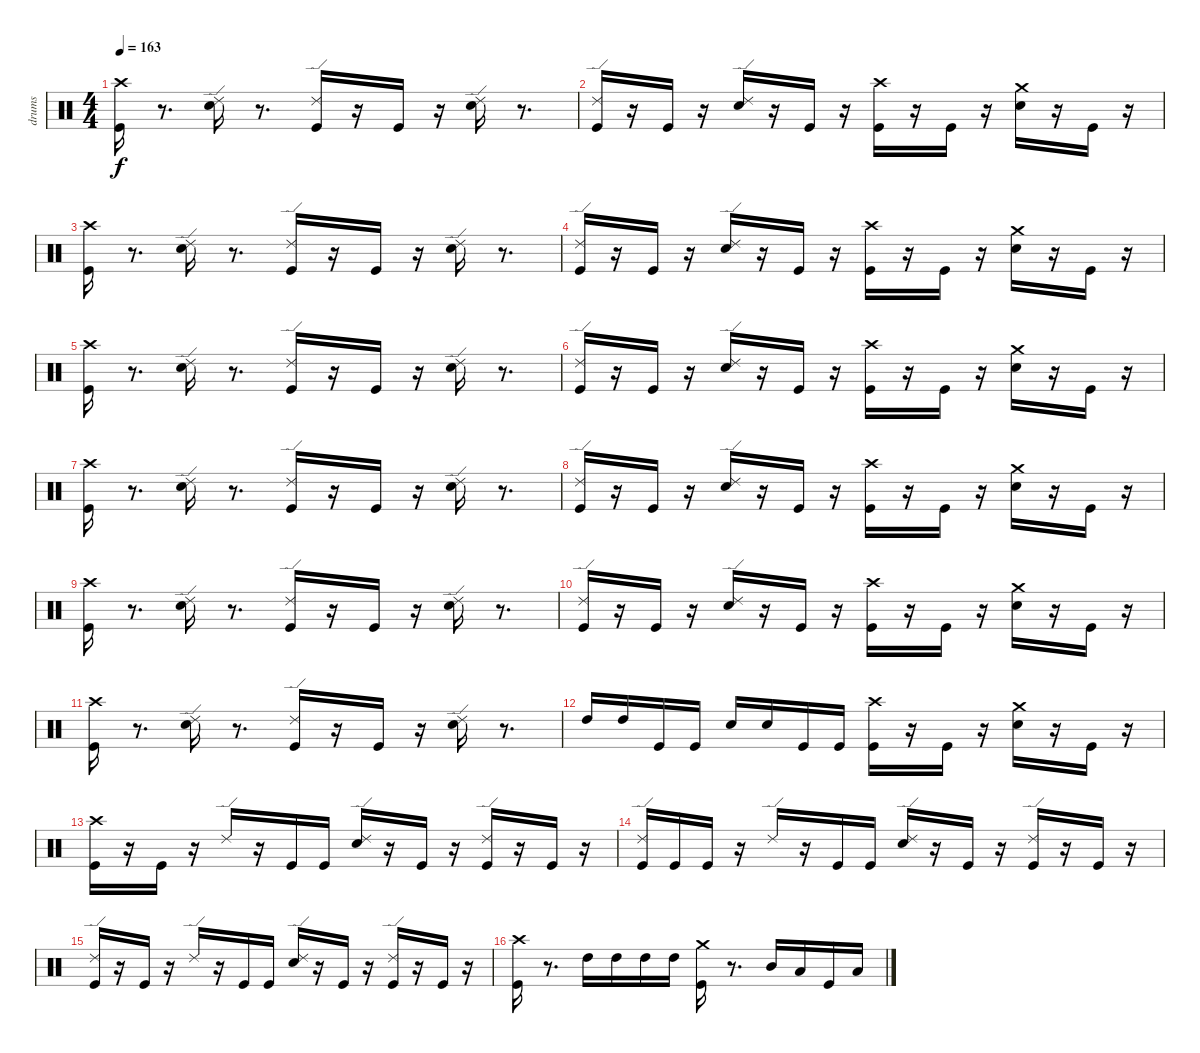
\track ("drums" "drums") {instrument percussion}
\staff {score}
\articulation defaults
\ts (4 4)
\tempo 163
\clef neutral
\ks c
("Crash high (hit)" "Kick (hit)").16{dy f} r.8{d} ("Ride (edge) 2" "Snare (hit) 2").16 r.8{d} ("Ride (edge) 2" "Kick (hit)").16 r.16 "Kick (hit)".16 r.16 ("Ride (edge) 2" "Snare (hit) 2").16 r.8{d} |
("Ride (edge) 2" "Kick (hit)").16 r.16 "Kick (hit)".16 r.16 ("Ride (edge) 2" "Snare (hit) 2").16 r.16 "Kick (hit)".16 r.16 ("Crash high (hit)" "Kick (hit)").16 r.16 "Kick (hit)".16 r.16 ("Crash medium (hit)" "Snare (hit) 2").16 r.16 "Kick (hit)".16 r.16 |
("Crash high (hit)" "Kick (hit)").16 r.8{d} ("Ride (edge) 2" "Snare (hit) 2").16 r.8{d} ("Ride (edge) 2" "Kick (hit)").16 r.16 "Kick (hit)".16 r.16 ("Ride (edge) 2" "Snare (hit) 2").16 r.8{d} |
("Ride (edge) 2" "Kick (hit)").16 r.16 "Kick (hit)".16 r.16 ("Ride (edge) 2" "Snare (hit) 2").16 r.16 "Kick (hit)".16 r.16 ("Crash high (hit)" "Kick (hit)").16 r.16 "Kick (hit)".16 r.16 ("Crash medium (hit)" "Snare (hit) 2").16 r.16 "Kick (hit)".16 r.16 |
("Crash high (hit)" "Kick (hit)").16 r.8{d} ("Ride (edge) 2" "Snare (hit) 2").16 r.8{d} ("Ride (edge) 2" "Kick (hit)").16 r.16 "Kick (hit)".16 r.16 ("Ride (edge) 2" "Snare (hit) 2").16 r.8{d} |
("Ride (edge) 2" "Kick (hit)").16 r.16 "Kick (hit)".16 r.16 ("Ride (edge) 2" "Snare (hit) 2").16 r.16 "Kick (hit)".16 r.16 ("Crash high (hit)" "Kick (hit)").16 r.16 "Kick (hit)".16 r.16 ("Crash medium (hit)" "Snare (hit) 2").16 r.16 "Kick (hit)".16 r.16 |
("Crash high (hit)" "Kick (hit)").16 r.8{d} ("Ride (edge) 2" "Snare (hit) 2").16 r.8{d} ("Ride (edge) 2" "Kick (hit)").16 r.16 "Kick (hit)".16 r.16 ("Ride (edge) 2" "Snare (hit) 2").16 r.8{d} |
("Ride (edge) 2" "Kick (hit)").16 r.16 "Kick (hit)".16 r.16 ("Ride (edge) 2" "Snare (hit) 2").16 r.16 "Kick (hit)".16 r.16 ("Crash high (hit)" "Kick (hit)").16 r.16 "Kick (hit)".16 r.16 ("Crash medium (hit)" "Snare (hit) 2").16 r.16 "Kick (hit)".16 r.16 |
("Crash high (hit)" "Kick (hit)").16 r.8{d} ("Ride (edge) 2" "Snare (hit) 2").16 r.8{d} ("Ride (edge) 2" "Kick (hit)").16 r.16 "Kick (hit)".16 r.16 ("Ride (edge) 2" "Snare (hit) 2").16 r.8{d} |
("Ride (edge) 2" "Kick (hit)").16 r.16 "Kick (hit)".16 r.16 ("Ride (edge) 2" "Snare (hit) 2").16 r.16 "Kick (hit)".16 r.16 ("Crash high (hit)" "Kick (hit)").16 r.16 "Kick (hit)".16 r.16 ("Crash medium (hit)" "Snare (hit) 2").16 r.16 "Kick (hit)".16 r.16 |
("Crash high (hit)" "Kick (hit)").16 r.8{d} ("Ride (edge) 2" "Snare (hit) 2").16 r.8{d} ("Ride (edge) 2" "Kick (hit)").16 r.16 "Kick (hit)".16 r.16 ("Ride (edge) 2" "Snare (hit) 2").16 r.8{d} |
"High Tom (hit)".16 "High Tom (hit)".16 "Kick (hit)".16 "Kick (hit)".16 "Snare (hit) 2".16 "Snare (hit) 2".16 "Kick (hit)".16 "Kick (hit)".16 ("Crash high (hit)" "Kick (hit)").16 r.16 "Kick (hit)".16 r.16 ("Crash medium (hit)" "Snare (hit) 2").16 r.16 "Kick (hit)".16 r.16 |
("Crash high (hit)" "Kick (hit)").16 r.16 "Kick (hit)".16 r.16 "Ride (edge) 2".16 r.16 "Kick (hit)".16 "Kick (hit)".16 ("Ride (edge) 2" "Snare (hit) 2").16 r.16 "Kick (hit)".16 r.16 ("Kick (hit)" "Ride (edge) 2").16 r.16 "Kick (hit)".16 r.16 |
("Ride (edge) 2" "Kick (hit)").16 "Kick (hit)".16 "Kick (hit)".16 r.16 "Ride (edge) 2".16 r.16 "Kick (hit)".16 "Kick (hit)".16 ("Ride (edge) 2" "Snare (hit) 2").16 r.16 "Kick (hit)".16 r.16 ("Kick (hit)" "Ride (edge) 2").16 r.16 "Kick (hit)".16 r.16 |
("Ride (edge) 2" "Kick (hit)").16 r.16 "Kick (hit)".16 r.16 "Ride (edge) 2".16 r.16 "Kick (hit)".16 "Kick (hit)".16 ("Ride (edge) 2" "Snare (hit) 2").16 r.16 "Kick (hit)".16 r.16 ("Ride (edge) 2" "Kick (hit)").16 r.16 "Kick (hit)".16 r.16 |
("Kick (hit)" "Crash high (hit)").16 r.8{d} "High Tom (hit)".16 "High Tom (hit)".16 "High Tom (hit)".16 "High Tom (hit)".16 ("Crash medium (hit)" "Kick (hit)").16 r.8{d} "Mid Tom (hit)".16 "Low Tom (hit)".16 "Kick (hit)".16 "Low Tom (hit)".16
